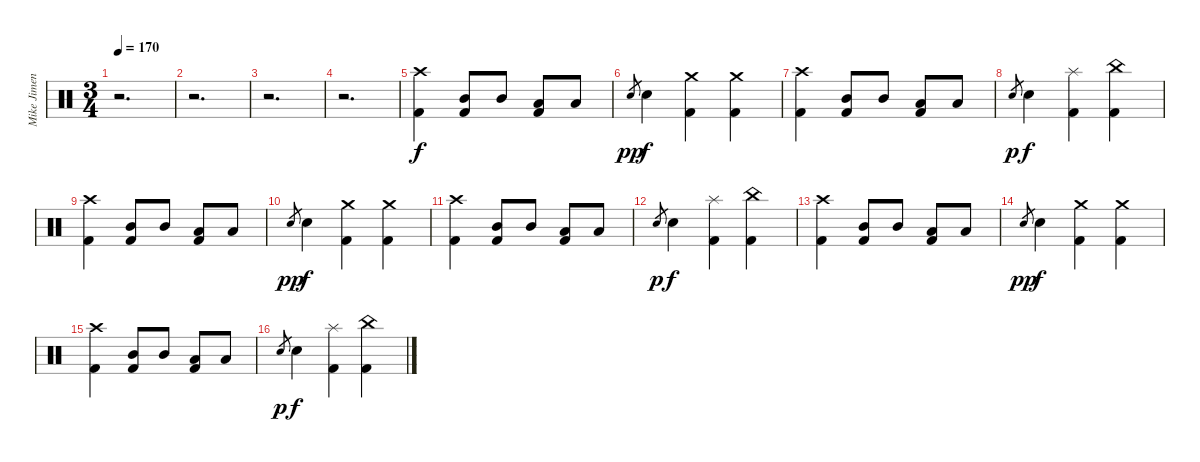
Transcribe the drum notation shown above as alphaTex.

\track ("Mike Jimenez" "Mike Jimen") {instrument percussion}
\staff {score}
\articulation defaults
\ts (3 4)
\tempo 170
\clef neutral
\ks c
r.2{d dy f} |
r.2{d} |
r.2{d} |
r.2{d} |
("Crash high (hit)" "Kick (hit) 2").4 ("Mid Tom (hit)" "Kick (hit) 2").8 "Mid Tom (hit)".8 ("Low Tom (hit)" "Kick (hit) 2").8 "Low Tom (hit)".8 |
"Electric Snare (hit)".8{gr dy pp} "Electric Snare (hit)".4{dy f} ("Crash medium (hit)" "Kick (hit) 2").4 ("Crash medium (hit)" "Kick (hit) 2").4 |
("Crash high (hit)" "Kick (hit) 2").4 ("Mid Tom (hit)" "Kick (hit) 2").8 "Mid Tom (hit)".8 ("Low Tom (hit)" "Kick (hit) 2").8 "Low Tom (hit)".8 |
"Electric Snare (hit)".8{gr dy p} "Electric Snare (hit)".4{dy f} ("Splash (hit)" "Kick (hit) 2").4 ("China (hit)" "Kick (hit) 2").4 |
("Crash high (hit)" "Kick (hit) 2").4 ("Mid Tom (hit)" "Kick (hit) 2").8 "Mid Tom (hit)".8 ("Low Tom (hit)" "Kick (hit) 2").8 "Low Tom (hit)".8 |
"Electric Snare (hit)".8{gr dy pp} "Electric Snare (hit)".4{dy f} ("Crash medium (hit)" "Kick (hit) 2").4 ("Crash medium (hit)" "Kick (hit) 2").4 |
("Crash high (hit)" "Kick (hit) 2").4 ("Mid Tom (hit)" "Kick (hit) 2").8 "Mid Tom (hit)".8 ("Low Tom (hit)" "Kick (hit) 2").8 "Low Tom (hit)".8 |
"Electric Snare (hit)".8{gr dy p} "Electric Snare (hit)".4{dy f} ("Splash (hit)" "Kick (hit) 2").4 ("China (hit)" "Kick (hit) 2").4 |
("Crash high (hit)" "Kick (hit) 2").4 ("Mid Tom (hit)" "Kick (hit) 2").8 "Mid Tom (hit)".8 ("Low Tom (hit)" "Kick (hit) 2").8 "Low Tom (hit)".8 |
"Electric Snare (hit)".8{gr dy pp} "Electric Snare (hit)".4{dy f} ("Crash medium (hit)" "Kick (hit) 2").4 ("Crash medium (hit)" "Kick (hit) 2").4 |
("Crash high (hit)" "Kick (hit) 2").4 ("Mid Tom (hit)" "Kick (hit) 2").8 "Mid Tom (hit)".8 ("Low Tom (hit)" "Kick (hit) 2").8 "Low Tom (hit)".8 |
"Electric Snare (hit)".8{gr dy p} "Electric Snare (hit)".4{dy f} ("Splash (hit)" "Kick (hit) 2").4 ("China (hit)" "Kick (hit) 2").4
